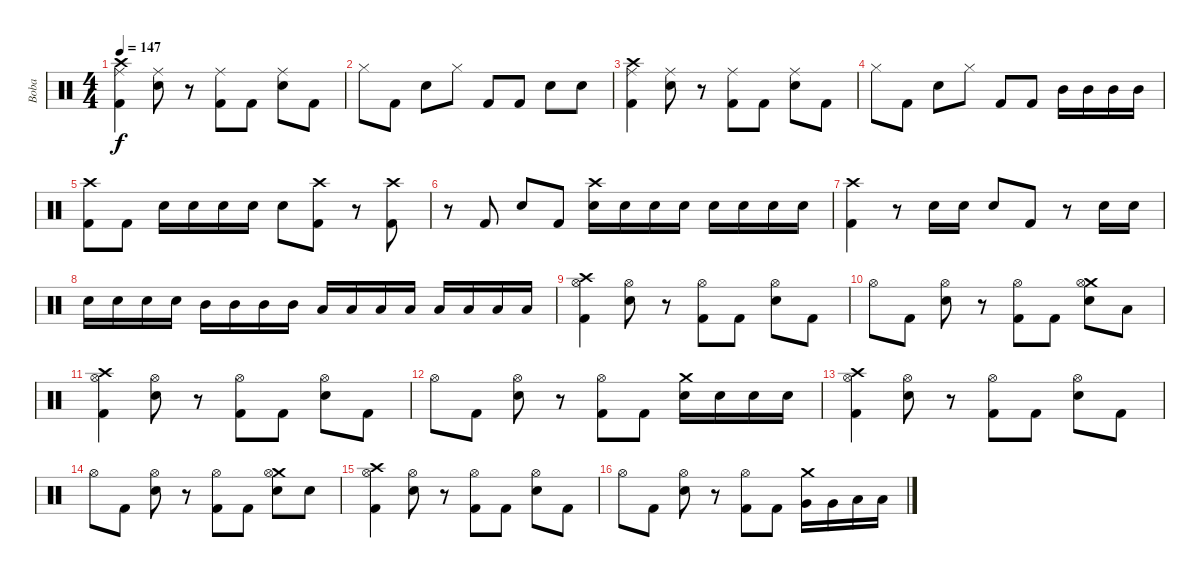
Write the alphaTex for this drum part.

\track ("Boba" "Boba") {instrument percussion}
\staff {score}
\articulation defaults
\ts (4 4)
\tempo 147
\clef neutral
\ks c
("Ride (middle)" "Crash high (hit)" "Kick (hit) 2").4{dy f} ("Ride (middle)" "Electric Snare (hit)").8 r.8 ("Ride (middle)" "Kick (hit) 2").8 "Kick (hit) 2".8 ("Ride (middle)" "Electric Snare (hit)").8 "Kick (hit) 2".8 |
"Hi-Hat (closed)".8 "Kick (hit) 2".8 "Electric Snare (hit)".8 "Hi-Hat (closed)".8 "Kick (hit) 2".8 "Kick (hit) 2".8 "Electric Snare (hit)".8 "Electric Snare (hit)".8 |
("Ride (middle)" "Crash high (hit)" "Kick (hit) 2").4 ("Ride (middle)" "Electric Snare (hit)").8 r.8 ("Ride (middle)" "Kick (hit) 2").8 "Kick (hit) 2".8 ("Ride (middle)" "Electric Snare (hit)").8 "Kick (hit) 2".8 |
"Hi-Hat (closed)".8 "Kick (hit) 2".8 "Electric Snare (hit)".8 "Hi-Hat (closed)".8 "Kick (hit) 2".8 "Kick (hit) 2".8 "Mid Tom (hit)".16 "Mid Tom (hit)".16 "Mid Tom (hit)".16 "Mid Tom (hit)".16 |
("Crash high (hit)" "Kick (hit) 2").8 "Kick (hit) 2".8 "Electric Snare (hit)".16 "Electric Snare (hit)".16 "Electric Snare (hit)".16 "Electric Snare (hit)".16 "Electric Snare (hit)".8 ("Crash high (hit)" "Kick (hit) 2").8 r.8 ("Crash high (hit)" "Kick (hit) 2").8 |
r.8 "Kick (hit) 2".8 "Electric Snare (hit)".8 "Kick (hit) 2".8 ("Crash high (hit)" "Electric Snare (hit)").16 "Electric Snare (hit)".16 "Electric Snare (hit)".16 "Electric Snare (hit)".16 "Electric Snare (hit)".16 "Electric Snare (hit)".16 "Electric Snare (hit)".16 "Electric Snare (hit)".16 |
("Crash high (hit)" "Kick (hit) 2").4 r.8 "Electric Snare (hit)".16 "Electric Snare (hit)".16 "Electric Snare (hit)".8 "Kick (hit) 2".8 r.8 "Electric Snare (hit)".16 "Electric Snare (hit)".16 |
"Electric Snare (hit)".16 "Electric Snare (hit)".16 "Electric Snare (hit)".16 "Electric Snare (hit)".16 "Mid Tom (hit)".16 "Mid Tom (hit)".16 "Mid Tom (hit)".16 "Mid Tom (hit)".16 "Low Tom (hit)".16 "Low Tom (hit)".16 "Low Tom (hit)".16 "Low Tom (hit)".16 "Low Floor Tom (hit)".16 "Low Floor Tom (hit)".16 "Low Floor Tom (hit)".16 "Low Floor Tom (hit)".16 |
("Crash high (hit)" "Hi-Hat (open)" "Kick (hit) 2").4 ("Hi-Hat (open)" "Electric Snare (hit)").8 r.8 ("Hi-Hat (open)" "Kick (hit) 2").8 "Kick (hit) 2".8 ("Hi-Hat (open)" "Electric Snare (hit)").8 "Kick (hit) 2".8 |
"Hi-Hat (open)".8 "Kick (hit) 2".8 ("Hi-Hat (open)" "Electric Snare (hit)").8 r.8 ("Hi-Hat (open)" "Kick (hit) 2").8 "Kick (hit) 2".8 ("Crash medium (hit)" "Hi-Hat (open)" "Electric Snare (hit)").8 "Low Tom (hit)".8 |
("Crash high (hit)" "Hi-Hat (open)" "Kick (hit) 2").4 ("Hi-Hat (open)" "Electric Snare (hit)").8 r.8 ("Hi-Hat (open)" "Kick (hit) 2").8 "Kick (hit) 2".8 ("Hi-Hat (open)" "Electric Snare (hit)").8 "Kick (hit) 2".8 |
"Hi-Hat (open)".8 "Kick (hit) 2".8 ("Hi-Hat (open)" "Electric Snare (hit)").8 r.8 ("Hi-Hat (open)" "Kick (hit) 2").8 "Kick (hit) 2".8 ("Crash medium (hit)" "Electric Snare (hit)").16 "Electric Snare (hit)".16 "Electric Snare (hit)".16 "Electric Snare (hit)".16 |
("Crash high (hit)" "Hi-Hat (open)" "Kick (hit) 2").4 ("Hi-Hat (open)" "Electric Snare (hit)").8 r.8 ("Hi-Hat (open)" "Kick (hit) 2").8 "Kick (hit) 2".8 ("Hi-Hat (open)" "Electric Snare (hit)").8 "Kick (hit) 2".8 |
"Hi-Hat (open)".8 "Kick (hit) 2".8 ("Hi-Hat (open)" "Electric Snare (hit)").8 r.8 ("Hi-Hat (open)" "Kick (hit) 2").8 "Kick (hit) 2".8 ("Crash medium (hit)" "Hi-Hat (open)" "Electric Snare (hit)").8 "Electric Snare (hit)".8 |
("Crash high (hit)" "Hi-Hat (open)" "Kick (hit) 2").4 ("Hi-Hat (open)" "Electric Snare (hit)").8 r.8 ("Hi-Hat (open)" "Kick (hit) 2").8 "Kick (hit) 2".8 ("Hi-Hat (open)" "Electric Snare (hit)").8 "Kick (hit) 2".8 |
"Hi-Hat (open)".8 "Kick (hit) 2".8 ("Hi-Hat (open)" "Electric Snare (hit)").8 r.8 ("Hi-Hat (open)" "Kick (hit) 2").8 "Kick (hit) 2".8 ("Crash medium (hit)" "Very Low Tom (hit)").16 "Very Low Tom (hit)".16 "Low Floor Tom (hit)".16 "Low Floor Tom (hit)".16
